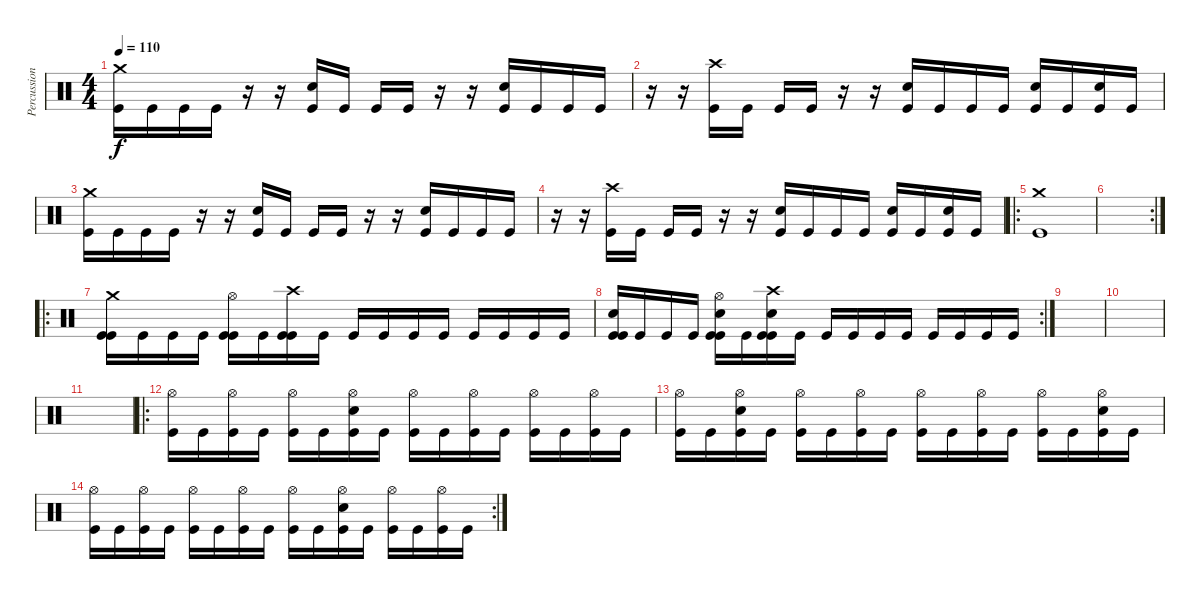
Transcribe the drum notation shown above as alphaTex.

\track ("Percussion" "Percussion") {instrument percussion}
\staff {score}
\articulation defaults
\ts (4 4)
\tempo 110
\clef neutral
\ks c
("Crash medium (hit)" "Kick (hit)").16{dy f} "Kick (hit)".16 "Kick (hit)".16 "Kick (hit)".16 r.16 r.16 ("Snare (hit) 2" "Kick (hit)").16 "Kick (hit)".16 "Kick (hit)".16 "Kick (hit)".16 r.16 r.16 ("Snare (hit) 2" "Kick (hit)").16 "Kick (hit)".16 "Kick (hit)".16 "Kick (hit)".16 |
r.16 r.16 ("Crash high (hit)" "Kick (hit)").16 "Kick (hit)".16 "Kick (hit)".16 "Kick (hit)".16 r.16 r.16 ("Snare (hit) 2" "Kick (hit)").16 "Kick (hit)".16 "Kick (hit)".16 "Kick (hit)".16 ("Snare (hit) 2" "Kick (hit)").16 "Kick (hit)".16 ("Snare (hit) 2" "Kick (hit)").16 "Kick (hit)".16 |
("Crash medium (hit)" "Kick (hit)").16 "Kick (hit)".16 "Kick (hit)".16 "Kick (hit)".16 r.16 r.16 ("Snare (hit) 2" "Kick (hit)").16 "Kick (hit)".16 "Kick (hit)".16 "Kick (hit)".16 r.16 r.16 ("Snare (hit) 2" "Kick (hit)").16 "Kick (hit)".16 "Kick (hit)".16 "Kick (hit)".16 |
r.16 r.16 ("Crash high (hit)" "Kick (hit)").16 "Kick (hit)".16 "Kick (hit)".16 "Kick (hit)".16 r.16 r.16 ("Snare (hit) 2" "Kick (hit)").16 "Kick (hit)".16 "Kick (hit)".16 "Kick (hit)".16 ("Snare (hit) 2" "Kick (hit)").16 "Kick (hit)".16 ("Snare (hit) 2" "Kick (hit)").16 "Kick (hit)".16 |
\ro
("Crash medium (hit)" "Kick (hit)").1 |
\rc 2
|
\ro
("Crash medium (hit)" "Kick (hit)" "Kick (hit)").16 "Kick (hit)".16 "Kick (hit)".16 "Kick (hit)".16 ("Hi-Hat (open)" "Kick (hit)" "Kick (hit)").16 "Kick (hit)".16 ("Crash high (hit)" "Kick (hit)" "Kick (hit)").16 "Kick (hit)".16 "Kick (hit)".16 "Kick (hit)".16 "Kick (hit)".16 "Kick (hit)".16 "Kick (hit)".16 "Kick (hit)".16 "Kick (hit)".16 "Kick (hit)".16 |
\rc 2
("Snare (hit) 2" "Kick (hit)" "Kick (hit)").16 "Kick (hit)".16 "Kick (hit)".16 "Kick (hit)".16 ("Hi-Hat (open)" "Snare (hit) 2" "Kick (hit)" "Kick (hit)").16 "Kick (hit)".16 ("Crash high (hit)" "Snare (hit) 2" "Kick (hit)" "Kick (hit)").16 "Kick (hit)".16 "Kick (hit)".16 "Kick (hit)".16 "Kick (hit)".16 "Kick (hit)".16 "Kick (hit)".16 "Kick (hit)".16 "Kick (hit)".16 "Kick (hit)".16 |
|
|
|
\ro
("Hi-Hat (open)" "Kick (hit)").16 "Kick (hit)".16 ("Hi-Hat (open)" "Kick (hit)").16 "Kick (hit)".16 ("Hi-Hat (open)" "Kick (hit)").16 "Kick (hit)".16 ("Hi-Hat (open)" "Snare (hit) 2" "Kick (hit)").16 "Kick (hit)".16 ("Hi-Hat (open)" "Kick (hit)").16 "Kick (hit)".16 ("Hi-Hat (open)" "Kick (hit)").16 "Kick (hit)".16 ("Hi-Hat (open)" "Kick (hit)").16 "Kick (hit)".16 ("Hi-Hat (open)" "Kick (hit)").16 "Kick (hit)".16 |
("Hi-Hat (open)" "Kick (hit)").16 "Kick (hit)".16 ("Hi-Hat (open)" "Snare (hit) 2" "Kick (hit)").16 "Kick (hit)".16 ("Hi-Hat (open)" "Kick (hit)").16 "Kick (hit)".16 ("Hi-Hat (open)" "Kick (hit)").16 "Kick (hit)".16 ("Hi-Hat (open)" "Kick (hit)").16 "Kick (hit)".16 ("Hi-Hat (open)" "Kick (hit)").16 "Kick (hit)".16 ("Hi-Hat (open)" "Kick (hit)").16 "Kick (hit)".16 ("Hi-Hat (open)" "Snare (hit) 2" "Kick (hit)").16 "Kick (hit)".16 |
\rc 2
("Hi-Hat (open)" "Kick (hit)").16 "Kick (hit)".16 ("Hi-Hat (open)" "Kick (hit)").16 "Kick (hit)".16 ("Hi-Hat (open)" "Kick (hit)").16 "Kick (hit)".16 ("Hi-Hat (open)" "Kick (hit)").16 "Kick (hit)".16 ("Hi-Hat (open)" "Kick (hit)").16 "Kick (hit)".16 ("Hi-Hat (open)" "Snare (hit) 2" "Kick (hit)").16 "Kick (hit)".16 ("Hi-Hat (open)" "Kick (hit)").16 "Kick (hit)".16 ("Hi-Hat (open)" "Kick (hit)").16 "Kick (hit)".16
